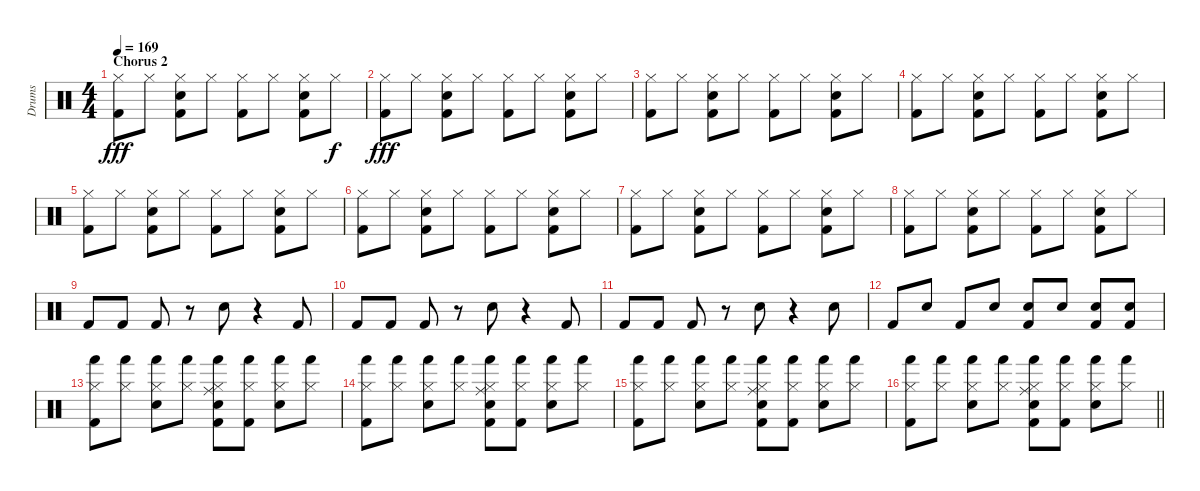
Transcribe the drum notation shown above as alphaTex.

\track ("Drums" "Drums") {instrument percussion}
\staff {score}
\articulation defaults
\ts (4 4)
\section ("" "Chorus 2")
\tempo 169
\clef neutral
\ks c
("Kick (hit) 2" "Hi-Hat (closed)").8{dy fff} "Hi-Hat (closed)".8 ("Kick (hit) 2" "Snare (hit) 2" "Hi-Hat (closed)").8 "Hi-Hat (closed)".8 ("Kick (hit) 2" "Hi-Hat (closed)").8 "Hi-Hat (closed)".8 ("Kick (hit) 2" "Snare (hit) 2" "Hi-Hat (closed)").8 "Hi-Hat (closed)".8{dy f} |
("Kick (hit) 2" "Hi-Hat (closed)").8{dy fff} "Hi-Hat (closed)".8 ("Snare (hit) 2" "Kick (hit) 2" "Hi-Hat (closed)").8 "Hi-Hat (closed)".8 ("Kick (hit) 2" "Hi-Hat (closed)").8 "Hi-Hat (closed)".8 ("Kick (hit) 2" "Snare (hit) 2" "Hi-Hat (closed)").8 "Hi-Hat (closed)".8 |
("Kick (hit) 2" "Hi-Hat (closed)").8 "Hi-Hat (closed)".8 ("Snare (hit) 2" "Kick (hit) 2" "Hi-Hat (closed)").8 "Hi-Hat (closed)".8 ("Kick (hit) 2" "Hi-Hat (closed)").8 "Hi-Hat (closed)".8 ("Snare (hit) 2" "Kick (hit) 2" "Hi-Hat (closed)").8 "Hi-Hat (closed)".8 |
("Kick (hit) 2" "Hi-Hat (closed)").8 "Hi-Hat (closed)".8 ("Kick (hit) 2" "Snare (hit) 2" "Hi-Hat (closed)").8 "Hi-Hat (closed)".8 ("Kick (hit) 2" "Hi-Hat (closed)").8 "Hi-Hat (closed)".8 ("Kick (hit) 2" "Snare (hit) 2" "Hi-Hat (closed)").8 "Hi-Hat (closed)".8 |
("Kick (hit) 2" "Hi-Hat (closed)").8 "Hi-Hat (closed)".8 ("Kick (hit) 2" "Snare (hit) 2" "Hi-Hat (closed)").8 "Hi-Hat (closed)".8 ("Kick (hit) 2" "Hi-Hat (closed)").8 "Hi-Hat (closed)".8 ("Snare (hit) 2" "Kick (hit) 2" "Hi-Hat (closed)").8 "Hi-Hat (closed)".8 |
("Kick (hit) 2" "Hi-Hat (closed)").8 "Hi-Hat (closed)".8 ("Kick (hit) 2" "Snare (hit) 2" "Hi-Hat (closed)").8 "Hi-Hat (closed)".8 ("Kick (hit) 2" "Hi-Hat (closed)").8 "Hi-Hat (closed)".8 ("Snare (hit) 2" "Kick (hit) 2" "Hi-Hat (closed)").8 "Hi-Hat (closed)".8 |
("Kick (hit) 2" "Hi-Hat (closed)").8 "Hi-Hat (closed)".8 ("Snare (hit) 2" "Kick (hit) 2" "Hi-Hat (closed)").8 "Hi-Hat (closed)".8 ("Kick (hit) 2" "Hi-Hat (closed)").8 "Hi-Hat (closed)".8 ("Kick (hit) 2" "Snare (hit) 2" "Hi-Hat (closed)").8 "Hi-Hat (closed)".8 |
("Kick (hit) 2" "Hi-Hat (closed)").8 "Hi-Hat (closed)".8 ("Kick (hit) 2" "Snare (hit) 2" "Hi-Hat (closed)").8 "Hi-Hat (closed)".8 ("Kick (hit) 2" "Hi-Hat (closed)").8 "Hi-Hat (closed)".8 ("Snare (hit) 2" "Kick (hit) 2" "Hi-Hat (closed)").8 "Hi-Hat (closed)".8 |
"Kick (hit) 2".8 "Kick (hit) 2".8 "Kick (hit) 2".8 r.8 "Snare (hit) 2".8 r.4 "Kick (hit) 2".8 |
"Kick (hit) 2".8 "Kick (hit) 2".8 "Kick (hit) 2".8 r.8 "Snare (hit) 2".8 r.4 "Kick (hit) 2".8 |
"Kick (hit) 2".8 "Kick (hit) 2".8 "Kick (hit) 2".8 r.8 "Snare (hit) 2".8 r.4 "Snare (hit) 2".8 |
"Kick (hit) 2".8 "Snare (hit) 2".8 "Kick (hit) 2".8 "Snare (hit) 2".8 ("Kick (hit) 2" "Snare (hit) 2").8 "Snare (hit) 2".8 ("Snare (hit) 2" "Kick (hit) 2").8 ("Snare (hit) 2" "Kick (hit) 2").8 |
("Kick (hit) 2" "Hand (hit)" "Hi-Hat (closed)").8 ("Hand (hit)" "Hi-Hat (closed)").8 ("Snare (hit) 2" "Hand (hit)" "Hi-Hat (closed)").8 ("Hand (hit)" "Hi-Hat (closed)").8 ("Kick (hit) 2" "Hand (hit)" "Electric Snare (hit)" "Ride (middle)" "Hi-Hat (closed)").8 ("Kick (hit) 2" "Hand (hit)" "Hi-Hat (closed)").8 ("Snare (hit) 2" "Hand (hit)" "Hi-Hat (closed)").8 ("Hand (hit)" "Hi-Hat (closed)").8 |
("Kick (hit) 2" "Hand (hit)" "Hi-Hat (closed)").8 ("Hand (hit)" "Hi-Hat (closed)").8 ("Snare (hit) 2" "Hand (hit)" "Hi-Hat (closed)").8 ("Hand (hit)" "Hi-Hat (closed)").8 ("Kick (hit) 2" "Hand (hit)" "Ride (middle)" "Electric Snare (hit)" "Hi-Hat (closed)").8 ("Kick (hit) 2" "Hand (hit)" "Hi-Hat (closed)").8 ("Snare (hit) 2" "Hand (hit)" "Hi-Hat (closed)").8 ("Hand (hit)" "Hi-Hat (closed)").8 |
("Kick (hit) 2" "Hand (hit)" "Hi-Hat (closed)").8 ("Hand (hit)" "Hi-Hat (closed)").8 ("Snare (hit) 2" "Hand (hit)" "Hi-Hat (closed)").8 ("Hand (hit)" "Hi-Hat (closed)").8 ("Kick (hit) 2" "Hand (hit)" "Electric Snare (hit)" "Ride (middle)" "Hi-Hat (closed)").8 ("Kick (hit) 2" "Hand (hit)" "Hi-Hat (closed)").8 ("Snare (hit) 2" "Hand (hit)" "Hi-Hat (closed)").8 ("Hand (hit)" "Hi-Hat (closed)").8 |
\barLineRight lightlight
("Kick (hit) 2" "Hand (hit)" "Hi-Hat (closed)").8 ("Hand (hit)" "Hi-Hat (closed)").8 ("Snare (hit) 2" "Hand (hit)" "Hi-Hat (closed)").8 ("Hand (hit)" "Hi-Hat (closed)").8 ("Kick (hit) 2" "Hand (hit)" "Ride (middle)" "Electric Snare (hit)" "Hi-Hat (closed)").8 ("Kick (hit) 2" "Hand (hit)" "Hi-Hat (closed)").8 ("Snare (hit) 2" "Hand (hit)" "Hi-Hat (closed)").8 ("Hand (hit)" "Hi-Hat (closed)").8
